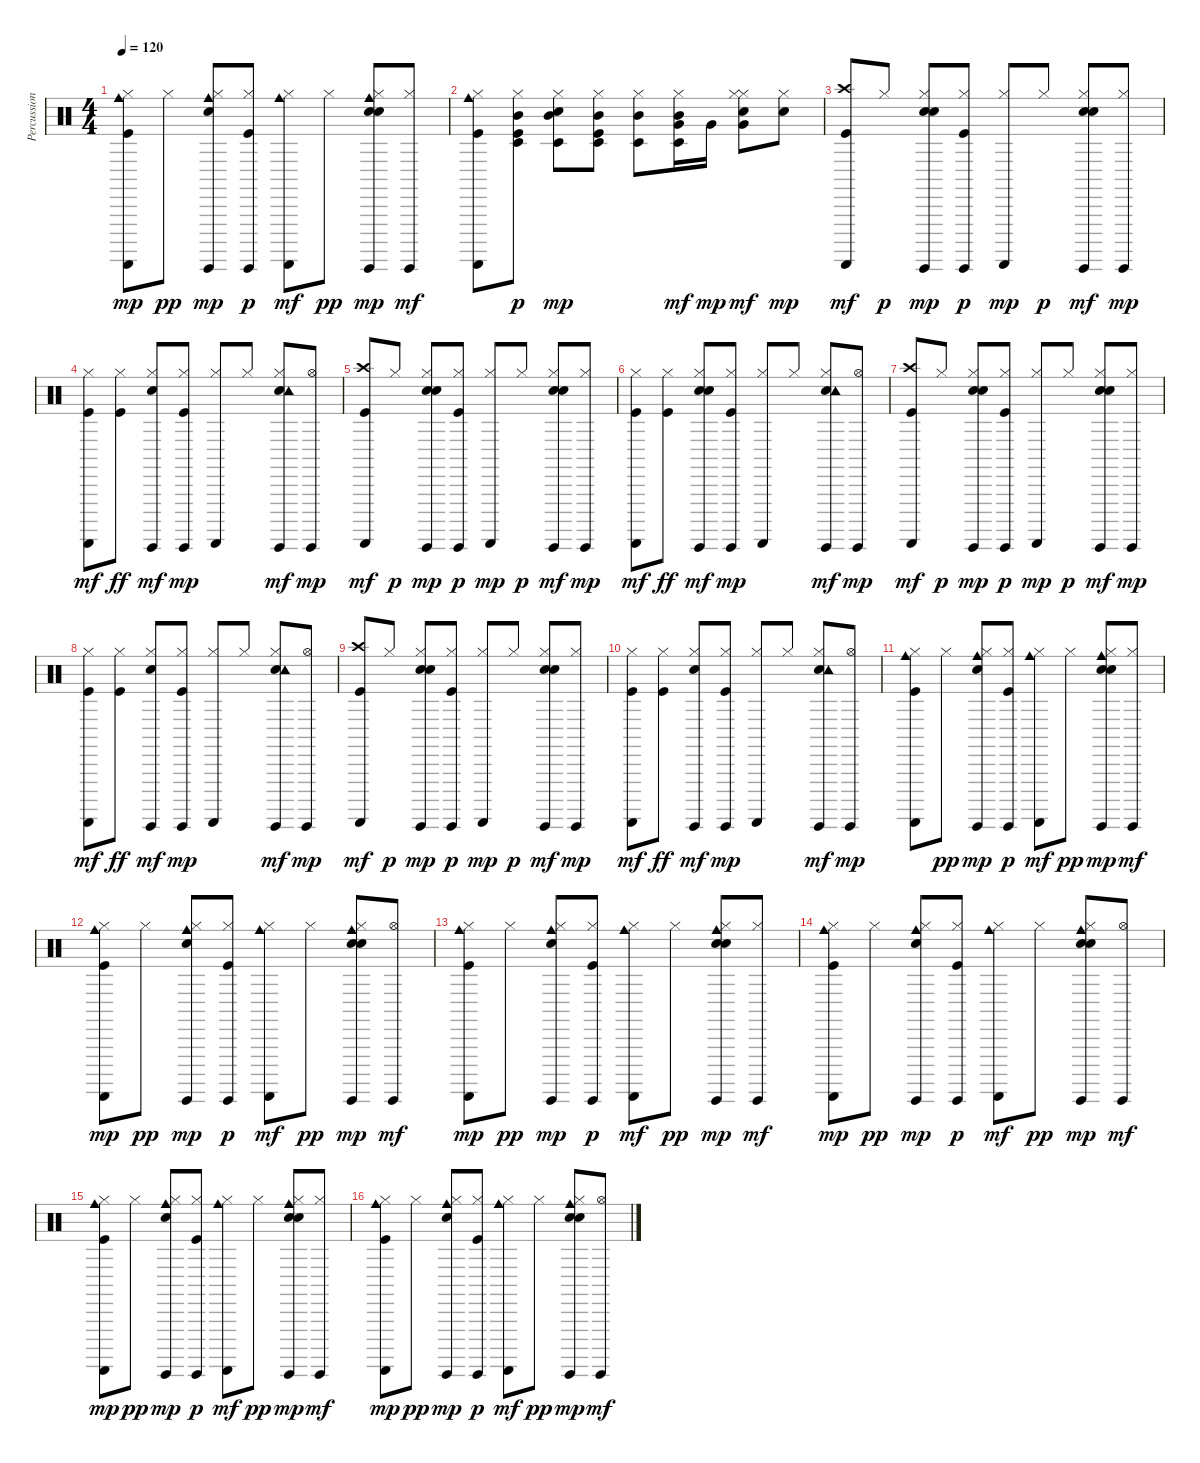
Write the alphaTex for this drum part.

\track ("Percussions" "Percussion") {instrument percussion}
\staff {score}
\articulation defaults
\ts (4 4)
\tempo 120
\clef neutral
\ks c
("Hi-Hat (closed)" "Guiro (scrap-return)" "Cowbell medium (hit)" "Kick (hit)").8{dy mp} "Hi-Hat (closed)".8{dy pp} ("Hi-Hat (closed)" "Guiro (hit)" "Snare (hit) 2" "Cowbell medium (hit)").8{dy mp} ("Hi-Hat (closed)" "Guiro (hit)" "Kick (hit)").8{dy p} ("Hi-Hat (closed)" "Guiro (scrap-return)" "Cowbell medium (hit)").8{dy mf} "Hi-Hat (closed)".8{dy pp} ("Hi-Hat (closed)" "Guiro (hit)" "Snare (hit) 2" "Cowbell medium (hit)" "Hand Clap (hit)").8{dy mp} ("Hi-Hat (closed)" "Guiro (hit)").8{dy mf} |
("Hi-Hat (closed)" "Guiro (scrap-return)" "Cowbell medium (hit)" "Kick (hit)").8 ("Hi-Hat (closed)" "Timbale low (hit)" "Mid Tom (hit)" "Kick (hit)").8{dy p} ("Hi-Hat (closed)" "Timbale low (hit)" "Snare (hit) 2" "Mid Tom (hit)").8{dy mp} ("Hi-Hat (closed)" "Timbale low (hit)" "Mid Tom (hit)" "Kick (hit)").8 ("Hi-Hat (closed)" "Timbale low (hit)" "Mid Tom (hit)").8 ("Hi-Hat (closed)" "Timbale low (hit)" "Mid Tom (hit)" "Very Low Tom (hit)").16{dy mf} "Very Low Tom (hit)".16{dy mp} ("Hi-Hat (closed)" "Hi-Hat (closed)" "Snare (hit) 2" "Very Low Tom (hit)").8{dy mf} ("Hi-Hat (closed)" "Metronome (bell)").8{dy mp} |
("Crash high (hit)" "Guiro (scrap-return)" "Kick (hit)").8{dy mf} "Hi-Hat (closed)".8{dy p} ("Hi-Hat (closed)" "Guiro (hit)" "Snare (hit) 2" "Hand Clap (hit)").8{dy mp} ("Hi-Hat (closed)" "Guiro (hit)" "Kick (hit)").8{dy p} ("Hi-Hat (closed)" "Guiro (scrap-return)").8{dy mp} "Hi-Hat (closed)".8{dy p} ("Hi-Hat (closed)" "Guiro (hit)" "Snare (hit) 2" "Hand Clap (hit)").8{dy mf} ("Hi-Hat (closed)" "Guiro (hit)").8{dy mp} |
("Hi-Hat (closed)" "Guiro (scrap-return)" "Kick (hit)").8{dy mf} ("Hi-Hat (closed)" "Kick (hit)").8{dy ff} ("Hi-Hat (closed)" "Guiro (hit)" "Snare (hit) 2").8{dy mf} ("Hi-Hat (closed)" "Guiro (hit)" "Kick (hit)").8{dy mp} ("Hi-Hat (closed)" "Guiro (scrap-return)").8 "Hi-Hat (closed)".8 ("Hi-Hat (closed)" "Guiro (hit)" "Snare (hit) 2" "Tambourine (hit)").8{dy mf} ("Hi-Hat (open)" "Guiro (hit)").8{dy mp} |
("Crash high (hit)" "Guiro (scrap-return)" "Kick (hit)").8{dy mf} "Hi-Hat (closed)".8{dy p} ("Hi-Hat (closed)" "Guiro (hit)" "Snare (hit) 2" "Hand Clap (hit)").8{dy mp} ("Hi-Hat (closed)" "Guiro (hit)" "Kick (hit)").8{dy p} ("Hi-Hat (closed)" "Guiro (scrap-return)").8{dy mp} "Hi-Hat (closed)".8{dy p} ("Hi-Hat (closed)" "Guiro (hit)" "Snare (hit) 2" "Hand Clap (hit)").8{dy mf} ("Hi-Hat (closed)" "Guiro (hit)").8{dy mp} |
("Hi-Hat (closed)" "Guiro (scrap-return)" "Kick (hit)").8{dy mf} ("Hi-Hat (closed)" "Kick (hit)").8{dy ff} ("Hi-Hat (closed)" "Guiro (hit)" "Snare (hit) 2" "Hand Clap (hit)").8{dy mf} ("Hi-Hat (closed)" "Guiro (hit)" "Kick (hit)").8{dy mp} ("Hi-Hat (closed)" "Guiro (scrap-return)").8 "Hi-Hat (closed)".8 ("Hi-Hat (closed)" "Guiro (hit)" "Snare (hit) 2" "Tambourine (hit)").8{dy mf} ("Hi-Hat (open)" "Guiro (hit)").8{dy mp} |
("Crash high (hit)" "Guiro (scrap-return)" "Kick (hit)").8{dy mf} "Hi-Hat (closed)".8{dy p} ("Hi-Hat (closed)" "Guiro (hit)" "Snare (hit) 2" "Hand Clap (hit)").8{dy mp} ("Hi-Hat (closed)" "Guiro (hit)" "Kick (hit)").8{dy p} ("Hi-Hat (closed)" "Guiro (scrap-return)").8{dy mp} "Hi-Hat (closed)".8{dy p} ("Hi-Hat (closed)" "Guiro (hit)" "Snare (hit) 2" "Hand Clap (hit)").8{dy mf} ("Hi-Hat (closed)" "Guiro (hit)").8{dy mp} |
("Hi-Hat (closed)" "Guiro (scrap-return)" "Kick (hit)").8{dy mf} ("Hi-Hat (closed)" "Kick (hit)").8{dy ff} ("Hi-Hat (closed)" "Guiro (hit)" "Snare (hit) 2").8{dy mf} ("Hi-Hat (closed)" "Guiro (hit)" "Kick (hit)").8{dy mp} ("Hi-Hat (closed)" "Guiro (scrap-return)").8 "Hi-Hat (closed)".8 ("Hi-Hat (closed)" "Guiro (hit)" "Snare (hit) 2" "Tambourine (hit)").8{dy mf} ("Hi-Hat (open)" "Guiro (hit)").8{dy mp} |
("Crash high (hit)" "Guiro (scrap-return)" "Kick (hit)").8{dy mf} "Hi-Hat (closed)".8{dy p} ("Hi-Hat (closed)" "Guiro (hit)" "Snare (hit) 2" "Hand Clap (hit)").8{dy mp} ("Hi-Hat (closed)" "Guiro (hit)" "Kick (hit)").8{dy p} ("Hi-Hat (closed)" "Guiro (scrap-return)").8{dy mp} "Hi-Hat (closed)".8{dy p} ("Hi-Hat (closed)" "Guiro (hit)" "Snare (hit) 2" "Hand Clap (hit)").8{dy mf} ("Hi-Hat (closed)" "Guiro (hit)").8{dy mp} |
("Hi-Hat (closed)" "Guiro (scrap-return)" "Kick (hit)").8{dy mf} ("Hi-Hat (closed)" "Kick (hit)").8{dy ff} ("Hi-Hat (closed)" "Guiro (hit)" "Snare (hit) 2").8{dy mf} ("Hi-Hat (closed)" "Guiro (hit)" "Kick (hit)").8{dy mp} ("Hi-Hat (closed)" "Guiro (scrap-return)").8 "Hi-Hat (closed)".8 ("Hi-Hat (closed)" "Guiro (hit)" "Snare (hit) 2" "Tambourine (hit)").8{dy mf} ("Hi-Hat (open)" "Guiro (hit)").8{dy mp} |
("Hi-Hat (closed)" "Guiro (scrap-return)" "Cowbell medium (hit)" "Kick (hit)").8 "Hi-Hat (closed)".8{dy pp} ("Hi-Hat (closed)" "Guiro (hit)" "Snare (hit) 2" "Cowbell medium (hit)").8{dy mp} ("Hi-Hat (closed)" "Guiro (hit)" "Kick (hit)").8{dy p} ("Hi-Hat (closed)" "Guiro (scrap-return)" "Cowbell medium (hit)").8{dy mf} "Hi-Hat (closed)".8{dy pp} ("Hi-Hat (closed)" "Guiro (hit)" "Snare (hit) 2" "Cowbell medium (hit)" "Hand Clap (hit)").8{dy mp} ("Hi-Hat (closed)" "Guiro (hit)").8{dy mf} |
("Hi-Hat (closed)" "Guiro (scrap-return)" "Cowbell medium (hit)" "Kick (hit)").8{dy mp} "Hi-Hat (closed)".8{dy pp} ("Hi-Hat (closed)" "Guiro (hit)" "Snare (hit) 2" "Cowbell medium (hit)").8{dy mp} ("Hi-Hat (closed)" "Guiro (hit)" "Kick (hit)").8{dy p} ("Hi-Hat (closed)" "Guiro (scrap-return)" "Cowbell medium (hit)").8{dy mf} "Hi-Hat (closed)".8{dy pp} ("Hi-Hat (closed)" "Guiro (hit)" "Snare (hit) 2" "Cowbell medium (hit)" "Hand Clap (hit)").8{dy mp} ("Hi-Hat (open)" "Guiro (hit)").8{dy mf} |
("Hi-Hat (closed)" "Guiro (scrap-return)" "Cowbell medium (hit)" "Kick (hit)").8{dy mp} "Hi-Hat (closed)".8{dy pp} ("Hi-Hat (closed)" "Guiro (hit)" "Snare (hit) 2" "Cowbell medium (hit)").8{dy mp} ("Hi-Hat (closed)" "Guiro (hit)" "Kick (hit)").8{dy p} ("Hi-Hat (closed)" "Guiro (scrap-return)" "Cowbell medium (hit)").8{dy mf} "Hi-Hat (closed)".8{dy pp} ("Hi-Hat (closed)" "Guiro (hit)" "Snare (hit) 2" "Cowbell medium (hit)" "Hand Clap (hit)").8{dy mp} ("Hi-Hat (closed)" "Guiro (hit)").8{dy mf} |
("Hi-Hat (closed)" "Guiro (scrap-return)" "Cowbell medium (hit)" "Kick (hit)").8{dy mp} "Hi-Hat (closed)".8{dy pp} ("Hi-Hat (closed)" "Guiro (hit)" "Snare (hit) 2" "Cowbell medium (hit)").8{dy mp} ("Hi-Hat (closed)" "Guiro (hit)" "Kick (hit)").8{dy p} ("Hi-Hat (closed)" "Guiro (scrap-return)" "Cowbell medium (hit)").8{dy mf} "Hi-Hat (closed)".8{dy pp} ("Hi-Hat (closed)" "Guiro (hit)" "Snare (hit) 2" "Cowbell medium (hit)" "Hand Clap (hit)").8{dy mp} ("Hi-Hat (open)" "Guiro (hit)").8{dy mf} |
("Hi-Hat (closed)" "Guiro (scrap-return)" "Cowbell medium (hit)" "Kick (hit)").8{dy mp} "Hi-Hat (closed)".8{dy pp} ("Hi-Hat (closed)" "Guiro (hit)" "Snare (hit) 2" "Cowbell medium (hit)").8{dy mp} ("Hi-Hat (closed)" "Guiro (hit)" "Kick (hit)").8{dy p} ("Hi-Hat (closed)" "Guiro (scrap-return)" "Cowbell medium (hit)").8{dy mf} "Hi-Hat (closed)".8{dy pp} ("Hi-Hat (closed)" "Guiro (hit)" "Snare (hit) 2" "Cowbell medium (hit)" "Hand Clap (hit)").8{dy mp} ("Hi-Hat (closed)" "Guiro (hit)").8{dy mf} |
("Hi-Hat (closed)" "Guiro (scrap-return)" "Cowbell medium (hit)" "Kick (hit)").8{dy mp} "Hi-Hat (closed)".8{dy pp} ("Hi-Hat (closed)" "Guiro (hit)" "Snare (hit) 2" "Cowbell medium (hit)").8{dy mp} ("Hi-Hat (closed)" "Guiro (hit)" "Kick (hit)").8{dy p} ("Hi-Hat (closed)" "Guiro (scrap-return)" "Cowbell medium (hit)").8{dy mf} "Hi-Hat (closed)".8{dy pp} ("Hi-Hat (closed)" "Guiro (hit)" "Snare (hit) 2" "Cowbell medium (hit)" "Hand Clap (hit)").8{dy mp} ("Hi-Hat (open)" "Guiro (hit)").8{dy mf}
